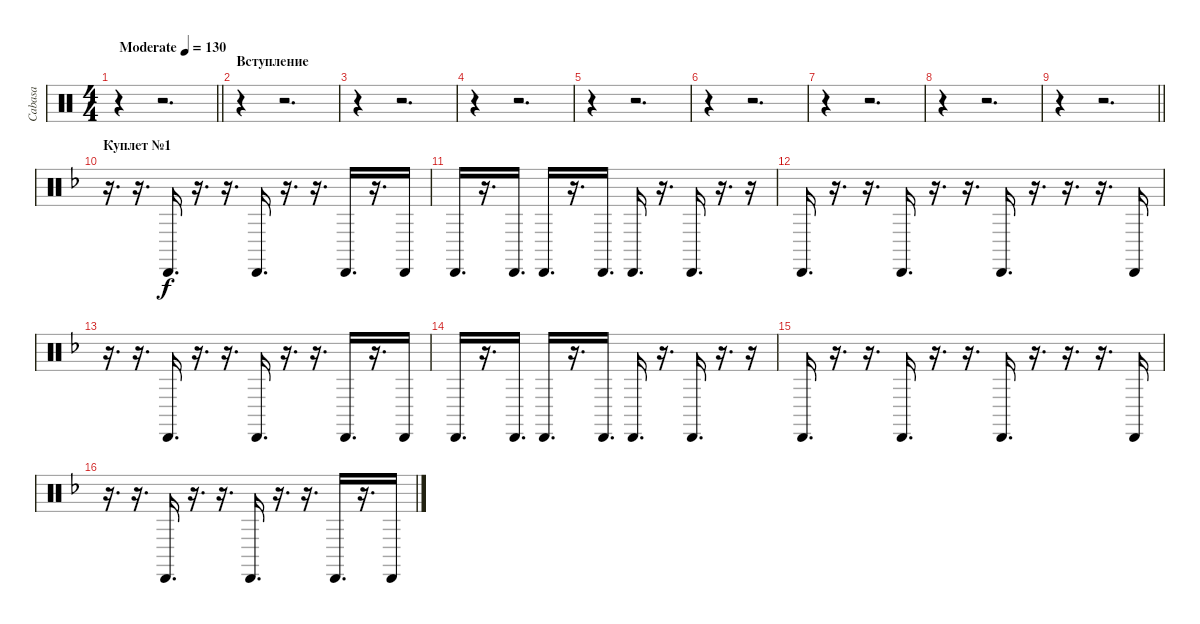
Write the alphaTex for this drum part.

\track ("Cabasa" "Cabasa") {instrument percussion}
\staff {score}
\articulation defaults
\ts (4 4)
\tempo (130 "Moderate")
\clef neutral
\barLineRight lightlight
\ks c
r.4{dy f} r.2{d} |
\section ("" "Вступление")
r.4 r.2{d} |
r.4 r.2{d} |
r.4 r.2{d} |
r.4 r.2{d} |
r.4 r.2{d} |
r.4 r.2{d} |
r.4 r.2{d} |
\barLineRight lightlight
r.4 r.2{d} |
\section ("" "Куплет №1")
\ks f
r.16{d} r.16{d} "Cabasa (hit)".16{d} r.16{d} r.16{d} "Cabasa (hit)".16{d} r.16{d} r.16{d} "Cabasa (hit)".16{d} r.16{d} "Cabasa (hit)".16 |
"Cabasa (hit)".16{d} r.16{d} "Cabasa (hit)".16{d} "Cabasa (hit)".16{d} r.16{d} "Cabasa (hit)".16{d} "Cabasa (hit)".16{d} r.16{d} "Cabasa (hit)".16{d} r.16{d} r.16 |
"Cabasa (hit)".16{d} r.16{d} r.16{d} "Cabasa (hit)".16{d} r.16{d} r.16{d} "Cabasa (hit)".16{d} r.16{d} r.16{d} r.16{d} "Cabasa (hit)".16 |
r.16{d} r.16{d} "Cabasa (hit)".16{d} r.16{d} r.16{d} "Cabasa (hit)".16{d} r.16{d} r.16{d} "Cabasa (hit)".16{d} r.16{d} "Cabasa (hit)".16 |
"Cabasa (hit)".16{d} r.16{d} "Cabasa (hit)".16{d} "Cabasa (hit)".16{d} r.16{d} "Cabasa (hit)".16{d} "Cabasa (hit)".16{d} r.16{d} "Cabasa (hit)".16{d} r.16{d} r.16 |
"Cabasa (hit)".16{d} r.16{d} r.16{d} "Cabasa (hit)".16{d} r.16{d} r.16{d} "Cabasa (hit)".16{d} r.16{d} r.16{d} r.16{d} "Cabasa (hit)".16 |
r.16{d} r.16{d} "Cabasa (hit)".16{d} r.16{d} r.16{d} "Cabasa (hit)".16{d} r.16{d} r.16{d} "Cabasa (hit)".16{d} r.16{d} "Cabasa (hit)".16
